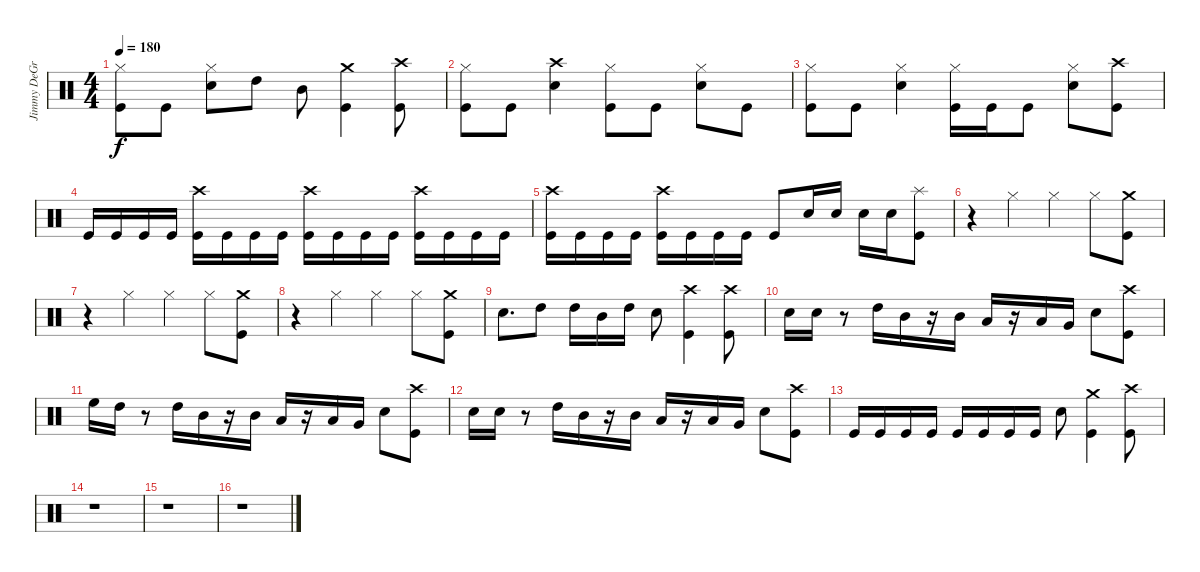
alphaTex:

\track ("Jimmy DeGrasso" "Jimmy DeGr") {instrument percussion}
\staff {score}
\articulation defaults
\ts (4 4)
\tempo 180
\clef neutral
\ks c
("Hi-Hat (closed)" "Kick (hit)").8{dy f} "Kick (hit)".8 ("Hi-Hat (closed)" "Snare (hit) 2").8 "High Tom (hit)".8 "Mid Tom (hit)".8 ("Crash medium (hit)" "Kick (hit)").4 ("Crash high (hit)" "Kick (hit)").8 |
("Hi-Hat (closed)" "Kick (hit)").8 "Kick (hit)".8 ("Crash high (hit)" "Snare (hit) 2").4 ("Hi-Hat (closed)" "Kick (hit)").8 "Kick (hit)".8 ("Hi-Hat (closed)" "Snare (hit) 2").8 "Kick (hit)".8 |
("Hi-Hat (closed)" "Kick (hit)").8 "Kick (hit)".8 ("Hi-Hat (closed)" "Snare (hit) 2").4 ("Hi-Hat (closed)" "Kick (hit)").16 "Kick (hit)".16 "Kick (hit)".8 ("Hi-Hat (closed)" "Snare (hit) 2").8 ("Crash high (hit)" "Kick (hit)").8 |
"Kick (hit)".16 "Kick (hit)".16 "Kick (hit)".16 "Kick (hit)".16 ("Crash high (hit)" "Kick (hit)").16 "Kick (hit)".16 "Kick (hit)".16 "Kick (hit)".16 ("Crash high (hit)" "Kick (hit)").16 "Kick (hit)".16 "Kick (hit)".16 "Kick (hit)".16 ("Crash high (hit)" "Kick (hit)").16 "Kick (hit)".16 "Kick (hit)".16 "Kick (hit)".16 |
("Crash high (hit)" "Kick (hit)").16 "Kick (hit)".16 "Kick (hit)".16 "Kick (hit)".16 ("Crash high (hit)" "Kick (hit)").16 "Kick (hit)".16 "Kick (hit)".16 "Kick (hit)".16 "Kick (hit)".8 "Snare (hit) 2".16 "Snare (hit) 2".16 "Snare (hit) 2".16 "Snare (hit) 2".16 ("Splash (hit)" "Kick (hit)").8 |
r.4 "Hi-Hat (closed)".4 "Hi-Hat (closed)".4 "Hi-Hat (closed)".8 ("Crash medium (hit)" "Kick (hit)").8 |
r.4 "Hi-Hat (closed)".4 "Hi-Hat (closed)".4 "Hi-Hat (closed)".8 ("Crash medium (hit)" "Kick (hit)").8 |
r.4 "Hi-Hat (closed)".4 "Hi-Hat (closed)".4 "Hi-Hat (closed)".8 ("Crash medium (hit)" "Kick (hit)").8 |
"Snare (hit) 2".8{d} "High Tom (hit)".8 "High Tom (hit)".16 "Mid Tom (hit)".16 "High Tom (hit)".16 "Snare (hit) 2".8 ("Crash high (hit)" "Kick (hit)").4 ("Crash high (hit)" "Kick (hit)").8 |
"Snare (hit) 2".16 "Snare (hit) 2".16 r.8 "High Tom (hit)".16 "Mid Tom (hit)".16 r.16 "Mid Tom (hit)".16 "Low Tom (hit)".16 r.16 "Low Tom (hit)".16 "Very Low Tom (hit)".16 "Snare (hit) 2".8 ("Crash high (hit)" "Kick (hit)").8 |
"High Floor Tom (hit)".16 "High Tom (hit)".16 r.8 "High Tom (hit)".16 "Mid Tom (hit)".16 r.16 "Mid Tom (hit)".16 "Low Tom (hit)".16 r.16 "Low Tom (hit)".16 "Very Low Tom (hit)".16 "Snare (hit) 2".8 ("Crash high (hit)" "Kick (hit)").8 |
"Snare (hit) 2".16 "Snare (hit) 2".16 r.8 "High Tom (hit)".16 "Mid Tom (hit)".16 r.16 "Mid Tom (hit)".16 "Low Tom (hit)".16 r.16 "Low Tom (hit)".16 "Very Low Tom (hit)".16 "Snare (hit) 2".8 ("Crash high (hit)" "Kick (hit)").8 |
"Kick (hit)".16 "Kick (hit)".16 "Kick (hit)".16 "Kick (hit)".16 "Kick (hit)".16 "Kick (hit)".16 "Kick (hit)".16 "Kick (hit)".16 "Snare (hit) 2".8 ("Crash medium (hit)" "Kick (hit)").4 ("Crash high (hit)" "Kick (hit)").8 |
r.1 |
r.1 |
r.1
